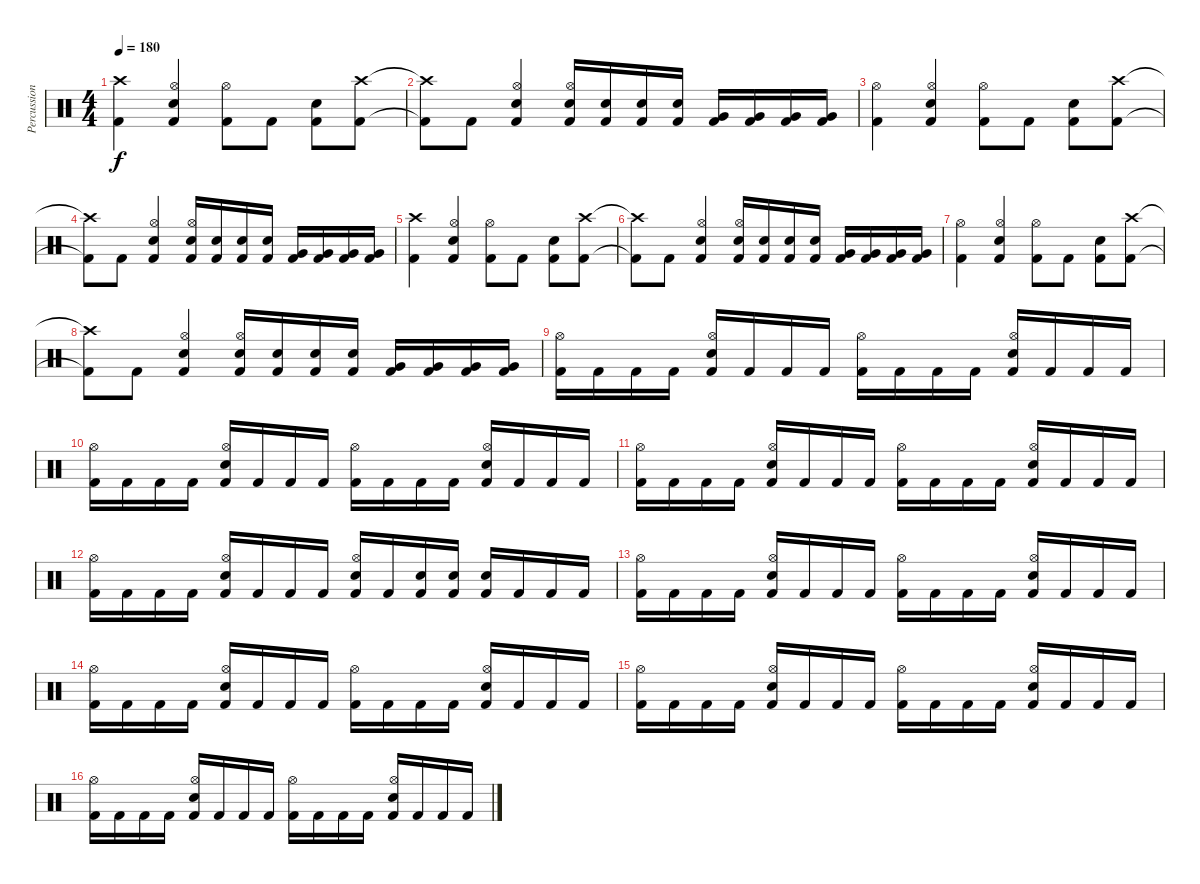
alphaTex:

\track ("Percussion" "Percussion") {instrument percussion}
\staff {score}
\articulation defaults
\ts (4 4)
\tempo 180
\clef neutral
\ks c
("Crash high (hit)" "Kick (hit) 2").4{dy f} ("Hi-Hat (open)" "Electric Snare (hit)" "Kick (hit) 2").4 ("Hi-Hat (open)" "Kick (hit) 2").8 "Kick (hit) 2".8 ("Electric Snare (hit)" "Kick (hit) 2").8 ("Crash high (hit)" "Kick (hit) 2").8 |
("Crash high (hit)"{t} "Kick (hit) 2"{t}).8 "Kick (hit) 2".8 ("Hi-Hat (open)" "Electric Snare (hit)" "Kick (hit) 2").4 ("Hi-Hat (open)" "Electric Snare (hit)" "Kick (hit) 2").16 ("Electric Snare (hit)" "Kick (hit) 2").16 ("Electric Snare (hit)" "Kick (hit) 2").16 ("Electric Snare (hit)" "Kick (hit) 2").16 ("Very Low Tom (hit)" "Kick (hit) 2").16 ("Very Low Tom (hit)" "Kick (hit) 2").16 ("Very Low Tom (hit)" "Kick (hit) 2").16 ("Very Low Tom (hit)" "Kick (hit) 2").16 |
("Hi-Hat (open)" "Kick (hit) 2").4 ("Hi-Hat (open)" "Electric Snare (hit)" "Kick (hit) 2").4 ("Hi-Hat (open)" "Kick (hit) 2").8 "Kick (hit) 2".8 ("Electric Snare (hit)" "Kick (hit) 2").8 ("Crash high (hit)" "Kick (hit) 2").8 |
("Crash high (hit)"{t} "Kick (hit) 2"{t}).8 "Kick (hit) 2".8 ("Hi-Hat (open)" "Electric Snare (hit)" "Kick (hit) 2").4 ("Hi-Hat (open)" "Electric Snare (hit)" "Kick (hit) 2").16 ("Electric Snare (hit)" "Kick (hit) 2").16 ("Electric Snare (hit)" "Kick (hit) 2").16 ("Electric Snare (hit)" "Kick (hit) 2").16 ("Very Low Tom (hit)" "Kick (hit) 2").16 ("Very Low Tom (hit)" "Kick (hit) 2").16 ("Very Low Tom (hit)" "Kick (hit) 2").16 ("Very Low Tom (hit)" "Kick (hit) 2").16 |
("Crash high (hit)" "Kick (hit) 2").4 ("Hi-Hat (open)" "Electric Snare (hit)" "Kick (hit) 2").4 ("Hi-Hat (open)" "Kick (hit) 2").8 "Kick (hit) 2".8 ("Electric Snare (hit)" "Kick (hit) 2").8 ("Crash high (hit)" "Kick (hit) 2").8 |
("Crash high (hit)"{t} "Kick (hit) 2"{t}).8 "Kick (hit) 2".8 ("Hi-Hat (open)" "Electric Snare (hit)" "Kick (hit) 2").4 ("Hi-Hat (open)" "Electric Snare (hit)" "Kick (hit) 2").16 ("Electric Snare (hit)" "Kick (hit) 2").16 ("Electric Snare (hit)" "Kick (hit) 2").16 ("Electric Snare (hit)" "Kick (hit) 2").16 ("Very Low Tom (hit)" "Kick (hit) 2").16 ("Very Low Tom (hit)" "Kick (hit) 2").16 ("Very Low Tom (hit)" "Kick (hit) 2").16 ("Very Low Tom (hit)" "Kick (hit) 2").16 |
("Hi-Hat (open)" "Kick (hit) 2").4 ("Hi-Hat (open)" "Electric Snare (hit)" "Kick (hit) 2").4 ("Hi-Hat (open)" "Kick (hit) 2").8 "Kick (hit) 2".8 ("Electric Snare (hit)" "Kick (hit) 2").8 ("Crash high (hit)" "Kick (hit) 2").8 |
("Crash high (hit)"{t} "Kick (hit) 2"{t}).8 "Kick (hit) 2".8 ("Hi-Hat (open)" "Electric Snare (hit)" "Kick (hit) 2").4 ("Hi-Hat (open)" "Electric Snare (hit)" "Kick (hit) 2").16 ("Electric Snare (hit)" "Kick (hit) 2").16 ("Electric Snare (hit)" "Kick (hit) 2").16 ("Electric Snare (hit)" "Kick (hit) 2").16 ("Very Low Tom (hit)" "Kick (hit) 2").16 ("Very Low Tom (hit)" "Kick (hit) 2").16 ("Very Low Tom (hit)" "Kick (hit) 2").16 ("Very Low Tom (hit)" "Kick (hit) 2").16 |
("Hi-Hat (open)" "Kick (hit) 2").16 "Kick (hit) 2".16 "Kick (hit) 2".16 "Kick (hit) 2".16 ("Hi-Hat (open)" "Electric Snare (hit)" "Kick (hit) 2").16 "Kick (hit) 2".16 "Kick (hit) 2".16 "Kick (hit) 2".16 ("Hi-Hat (open)" "Kick (hit) 2").16 "Kick (hit) 2".16 "Kick (hit) 2".16 "Kick (hit) 2".16 ("Hi-Hat (open)" "Electric Snare (hit)" "Kick (hit) 2").16 "Kick (hit) 2".16 "Kick (hit) 2".16 "Kick (hit) 2".16 |
("Hi-Hat (open)" "Kick (hit) 2").16 "Kick (hit) 2".16 "Kick (hit) 2".16 "Kick (hit) 2".16 ("Hi-Hat (open)" "Electric Snare (hit)" "Kick (hit) 2").16 "Kick (hit) 2".16 "Kick (hit) 2".16 "Kick (hit) 2".16 ("Hi-Hat (open)" "Kick (hit) 2").16 "Kick (hit) 2".16 "Kick (hit) 2".16 "Kick (hit) 2".16 ("Hi-Hat (open)" "Electric Snare (hit)" "Kick (hit) 2").16 "Kick (hit) 2".16 "Kick (hit) 2".16 "Kick (hit) 2".16 |
("Hi-Hat (open)" "Kick (hit) 2").16 "Kick (hit) 2".16 "Kick (hit) 2".16 "Kick (hit) 2".16 ("Hi-Hat (open)" "Electric Snare (hit)" "Kick (hit) 2").16 "Kick (hit) 2".16 "Kick (hit) 2".16 "Kick (hit) 2".16 ("Hi-Hat (open)" "Kick (hit) 2").16 "Kick (hit) 2".16 "Kick (hit) 2".16 "Kick (hit) 2".16 ("Hi-Hat (open)" "Electric Snare (hit)" "Kick (hit) 2").16 "Kick (hit) 2".16 "Kick (hit) 2".16 "Kick (hit) 2".16 |
("Hi-Hat (open)" "Kick (hit) 2").16 "Kick (hit) 2".16 "Kick (hit) 2".16 "Kick (hit) 2".16 ("Hi-Hat (open)" "Electric Snare (hit)" "Kick (hit) 2").16 "Kick (hit) 2".16 "Kick (hit) 2".16 "Kick (hit) 2".16 ("Hi-Hat (open)" "Electric Snare (hit)" "Kick (hit) 2").16 "Kick (hit) 2".16 ("Electric Snare (hit)" "Kick (hit) 2").16 ("Electric Snare (hit)" "Kick (hit) 2").16 ("Electric Snare (hit)" "Kick (hit) 2").16 "Kick (hit) 2".16 "Kick (hit) 2".16 "Kick (hit) 2".16 |
("Hi-Hat (open)" "Kick (hit) 2").16 "Kick (hit) 2".16 "Kick (hit) 2".16 "Kick (hit) 2".16 ("Hi-Hat (open)" "Electric Snare (hit)" "Kick (hit) 2").16 "Kick (hit) 2".16 "Kick (hit) 2".16 "Kick (hit) 2".16 ("Hi-Hat (open)" "Kick (hit) 2").16 "Kick (hit) 2".16 "Kick (hit) 2".16 "Kick (hit) 2".16 ("Hi-Hat (open)" "Electric Snare (hit)" "Kick (hit) 2").16 "Kick (hit) 2".16 "Kick (hit) 2".16 "Kick (hit) 2".16 |
("Hi-Hat (open)" "Kick (hit) 2").16 "Kick (hit) 2".16 "Kick (hit) 2".16 "Kick (hit) 2".16 ("Hi-Hat (open)" "Electric Snare (hit)" "Kick (hit) 2").16 "Kick (hit) 2".16 "Kick (hit) 2".16 "Kick (hit) 2".16 ("Hi-Hat (open)" "Kick (hit) 2").16 "Kick (hit) 2".16 "Kick (hit) 2".16 "Kick (hit) 2".16 ("Hi-Hat (open)" "Electric Snare (hit)" "Kick (hit) 2").16 "Kick (hit) 2".16 "Kick (hit) 2".16 "Kick (hit) 2".16 |
("Hi-Hat (open)" "Kick (hit) 2").16 "Kick (hit) 2".16 "Kick (hit) 2".16 "Kick (hit) 2".16 ("Hi-Hat (open)" "Electric Snare (hit)" "Kick (hit) 2").16 "Kick (hit) 2".16 "Kick (hit) 2".16 "Kick (hit) 2".16 ("Hi-Hat (open)" "Kick (hit) 2").16 "Kick (hit) 2".16 "Kick (hit) 2".16 "Kick (hit) 2".16 ("Hi-Hat (open)" "Electric Snare (hit)" "Kick (hit) 2").16 "Kick (hit) 2".16 "Kick (hit) 2".16 "Kick (hit) 2".16 |
("Hi-Hat (open)" "Kick (hit) 2").16 "Kick (hit) 2".16 "Kick (hit) 2".16 "Kick (hit) 2".16 ("Hi-Hat (open)" "Electric Snare (hit)" "Kick (hit) 2").16 "Kick (hit) 2".16 "Kick (hit) 2".16 "Kick (hit) 2".16 ("Hi-Hat (open)" "Kick (hit) 2").16 "Kick (hit) 2".16 "Kick (hit) 2".16 "Kick (hit) 2".16 ("Hi-Hat (open)" "Electric Snare (hit)" "Kick (hit) 2").16 "Kick (hit) 2".16 "Kick (hit) 2".16 "Kick (hit) 2".16
